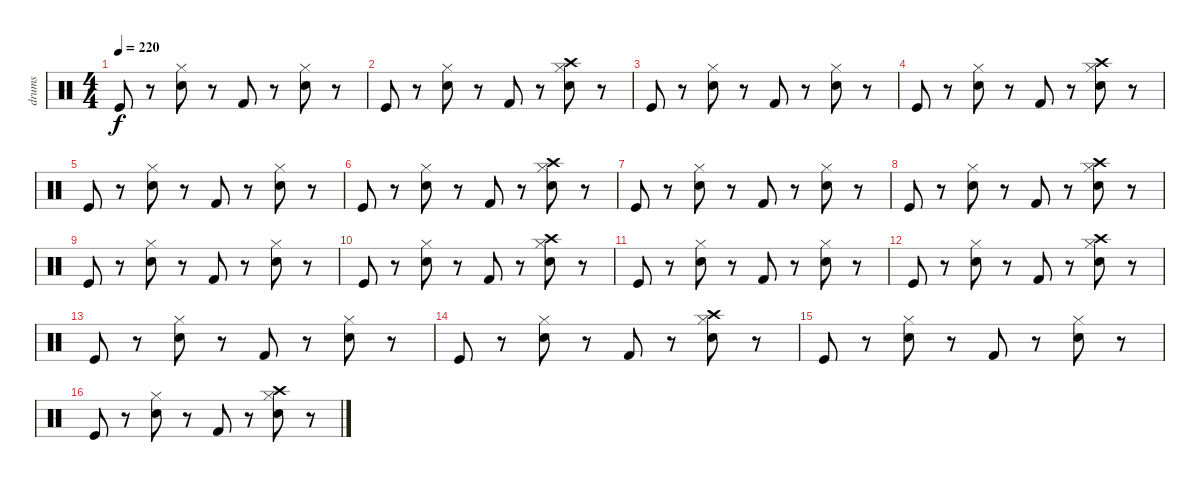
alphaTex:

\track ("drums" "drums") {instrument percussion}
\staff {score}
\articulation defaults
\ts (4 4)
\tempo 220
\clef neutral
\ks c "Kick (hit)".8{dy f}
r.8 ("Electric Snare (hit)" "Hi-Hat (closed)").8 r.8 "Kick (hit) 2".8 r.8 ("Electric Snare (hit)" "Hi-Hat (closed)").8 r.8 |
"Kick (hit)".8 r.8 ("Electric Snare (hit)" "Hi-Hat (closed)").8 r.8 "Kick (hit) 2".8 r.8 ("Electric Snare (hit)" "Hi-Hat (closed)" "Crash high (hit)").8 r.8 |
"Kick (hit)".8 r.8 ("Electric Snare (hit)" "Hi-Hat (closed)").8 r.8 "Kick (hit) 2".8 r.8 ("Electric Snare (hit)" "Hi-Hat (closed)").8 r.8 |
"Kick (hit)".8 r.8 ("Electric Snare (hit)" "Hi-Hat (closed)").8 r.8 "Kick (hit) 2".8 r.8 ("Electric Snare (hit)" "Hi-Hat (closed)" "Crash high (hit)").8 r.8 |
"Kick (hit)".8 r.8 ("Electric Snare (hit)" "Hi-Hat (closed)").8 r.8 "Kick (hit) 2".8 r.8 ("Electric Snare (hit)" "Hi-Hat (closed)").8 r.8 |
"Kick (hit)".8 r.8 ("Electric Snare (hit)" "Hi-Hat (closed)").8 r.8 "Kick (hit) 2".8 r.8 ("Electric Snare (hit)" "Hi-Hat (closed)" "Crash high (hit)").8 r.8 |
"Kick (hit)".8 r.8 ("Electric Snare (hit)" "Hi-Hat (closed)").8 r.8 "Kick (hit) 2".8 r.8 ("Electric Snare (hit)" "Hi-Hat (closed)").8 r.8 |
"Kick (hit)".8 r.8 ("Electric Snare (hit)" "Hi-Hat (closed)").8 r.8 "Kick (hit) 2".8 r.8 ("Electric Snare (hit)" "Hi-Hat (closed)" "Crash high (hit)").8 r.8 |
"Kick (hit)".8 r.8 ("Electric Snare (hit)" "Hi-Hat (closed)").8 r.8 "Kick (hit) 2".8 r.8 ("Electric Snare (hit)" "Hi-Hat (closed)").8 r.8 |
"Kick (hit)".8 r.8 ("Electric Snare (hit)" "Hi-Hat (closed)").8 r.8 "Kick (hit) 2".8 r.8 ("Electric Snare (hit)" "Hi-Hat (closed)" "Crash high (hit)").8 r.8 |
"Kick (hit)".8 r.8 ("Electric Snare (hit)" "Hi-Hat (closed)").8 r.8 "Kick (hit) 2".8 r.8 ("Electric Snare (hit)" "Hi-Hat (closed)").8 r.8 |
"Kick (hit)".8 r.8 ("Electric Snare (hit)" "Hi-Hat (closed)").8 r.8 "Kick (hit) 2".8 r.8 ("Electric Snare (hit)" "Hi-Hat (closed)" "Crash high (hit)").8 r.8 |
"Kick (hit)".8 r.8 ("Electric Snare (hit)" "Hi-Hat (closed)").8 r.8 "Kick (hit) 2".8 r.8 ("Electric Snare (hit)" "Hi-Hat (closed)").8 r.8 |
"Kick (hit)".8 r.8 ("Electric Snare (hit)" "Hi-Hat (closed)").8 r.8 "Kick (hit) 2".8 r.8 ("Electric Snare (hit)" "Hi-Hat (closed)" "Crash high (hit)").8 r.8 |
"Kick (hit)".8 r.8 ("Electric Snare (hit)" "Hi-Hat (closed)").8 r.8 "Kick (hit) 2".8 r.8 ("Electric Snare (hit)" "Hi-Hat (closed)").8 r.8 |
"Kick (hit)".8 r.8 ("Electric Snare (hit)" "Hi-Hat (closed)").8 r.8 "Kick (hit) 2".8 r.8 ("Electric Snare (hit)" "Hi-Hat (closed)" "Crash high (hit)").8 r.8
